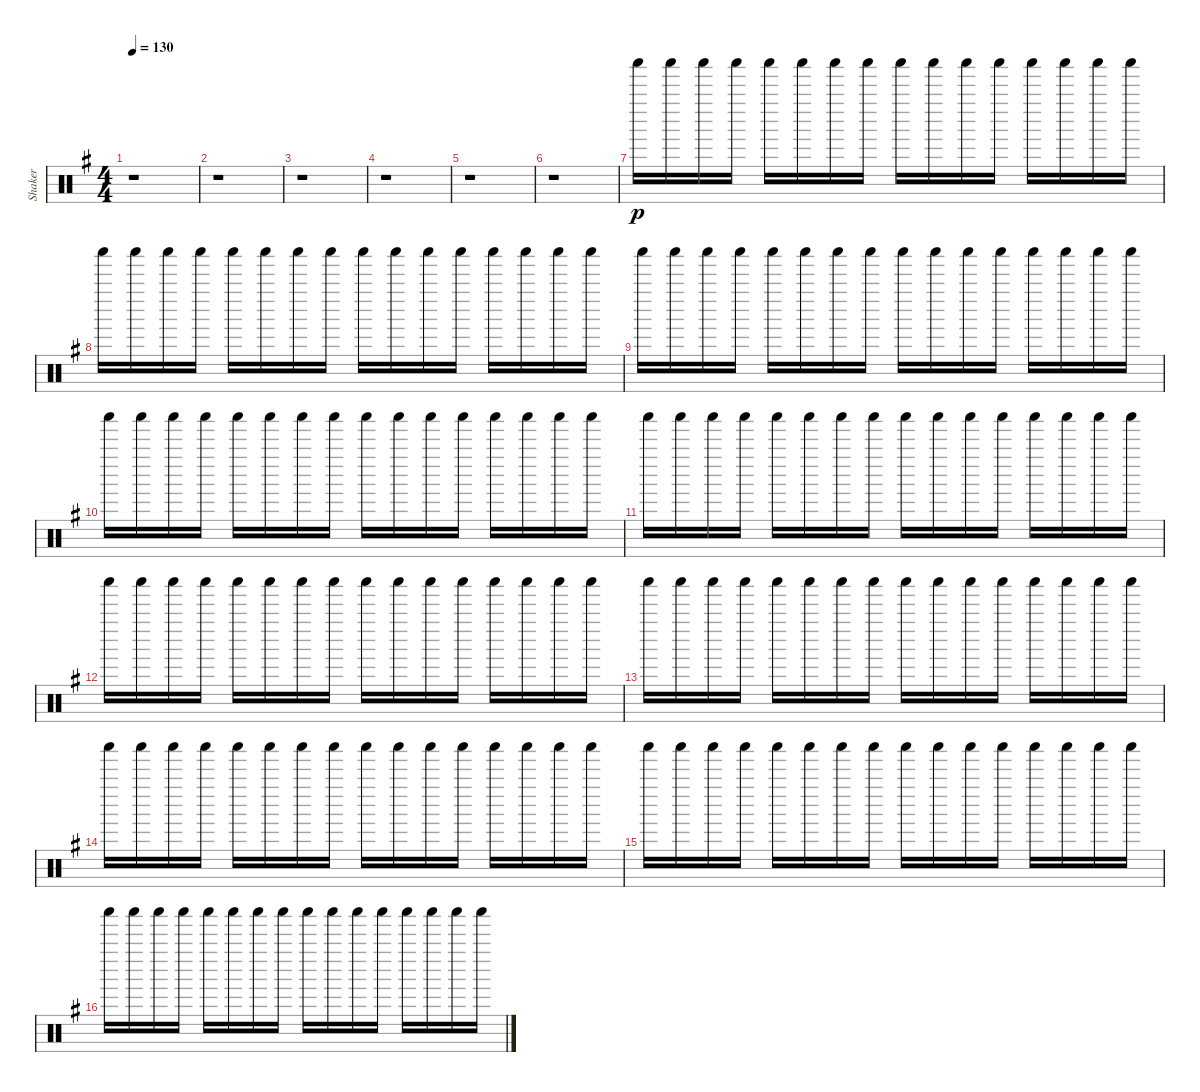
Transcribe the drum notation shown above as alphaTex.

\track ("Shaker" "Shaker") {instrument percussion}
\staff {score}
\articulation defaults
\ts (4 4)
\tempo 130
\clef neutral
\ks g
r.1{dy p} |
r.1 |
r.1 |
r.1 |
r.1 |
r.1 |
"Shaker (hit)".16 "Shaker (hit)".16 "Shaker (hit)".16 "Shaker (hit)".16 "Shaker (hit)".16 "Shaker (hit)".16 "Shaker (hit)".16 "Shaker (hit)".16 "Shaker (hit)".16 "Shaker (hit)".16 "Shaker (hit)".16 "Shaker (hit)".16 "Shaker (hit)".16 "Shaker (hit)".16 "Shaker (hit)".16 "Shaker (hit)".16 |
"Shaker (hit)".16 "Shaker (hit)".16 "Shaker (hit)".16 "Shaker (hit)".16 "Shaker (hit)".16 "Shaker (hit)".16 "Shaker (hit)".16 "Shaker (hit)".16 "Shaker (hit)".16 "Shaker (hit)".16 "Shaker (hit)".16 "Shaker (hit)".16 "Shaker (hit)".16 "Shaker (hit)".16 "Shaker (hit)".16 "Shaker (hit)".16 |
"Shaker (hit)".16 "Shaker (hit)".16 "Shaker (hit)".16 "Shaker (hit)".16 "Shaker (hit)".16 "Shaker (hit)".16 "Shaker (hit)".16 "Shaker (hit)".16 "Shaker (hit)".16 "Shaker (hit)".16 "Shaker (hit)".16 "Shaker (hit)".16 "Shaker (hit)".16 "Shaker (hit)".16 "Shaker (hit)".16 "Shaker (hit)".16 |
"Shaker (hit)".16 "Shaker (hit)".16 "Shaker (hit)".16 "Shaker (hit)".16 "Shaker (hit)".16 "Shaker (hit)".16 "Shaker (hit)".16 "Shaker (hit)".16 "Shaker (hit)".16 "Shaker (hit)".16 "Shaker (hit)".16 "Shaker (hit)".16 "Shaker (hit)".16 "Shaker (hit)".16 "Shaker (hit)".16 "Shaker (hit)".16 |
"Shaker (hit)".16 "Shaker (hit)".16 "Shaker (hit)".16 "Shaker (hit)".16 "Shaker (hit)".16 "Shaker (hit)".16 "Shaker (hit)".16 "Shaker (hit)".16 "Shaker (hit)".16 "Shaker (hit)".16 "Shaker (hit)".16 "Shaker (hit)".16 "Shaker (hit)".16 "Shaker (hit)".16 "Shaker (hit)".16 "Shaker (hit)".16 |
"Shaker (hit)".16 "Shaker (hit)".16 "Shaker (hit)".16 "Shaker (hit)".16 "Shaker (hit)".16 "Shaker (hit)".16 "Shaker (hit)".16 "Shaker (hit)".16 "Shaker (hit)".16 "Shaker (hit)".16 "Shaker (hit)".16 "Shaker (hit)".16 "Shaker (hit)".16 "Shaker (hit)".16 "Shaker (hit)".16 "Shaker (hit)".16 |
"Shaker (hit)".16 "Shaker (hit)".16 "Shaker (hit)".16 "Shaker (hit)".16 "Shaker (hit)".16 "Shaker (hit)".16 "Shaker (hit)".16 "Shaker (hit)".16 "Shaker (hit)".16 "Shaker (hit)".16 "Shaker (hit)".16 "Shaker (hit)".16 "Shaker (hit)".16 "Shaker (hit)".16 "Shaker (hit)".16 "Shaker (hit)".16 |
"Shaker (hit)".16 "Shaker (hit)".16 "Shaker (hit)".16 "Shaker (hit)".16 "Shaker (hit)".16 "Shaker (hit)".16 "Shaker (hit)".16 "Shaker (hit)".16 "Shaker (hit)".16 "Shaker (hit)".16 "Shaker (hit)".16 "Shaker (hit)".16 "Shaker (hit)".16 "Shaker (hit)".16 "Shaker (hit)".16 "Shaker (hit)".16 |
"Shaker (hit)".16 "Shaker (hit)".16 "Shaker (hit)".16 "Shaker (hit)".16 "Shaker (hit)".16 "Shaker (hit)".16 "Shaker (hit)".16 "Shaker (hit)".16 "Shaker (hit)".16 "Shaker (hit)".16 "Shaker (hit)".16 "Shaker (hit)".16 "Shaker (hit)".16 "Shaker (hit)".16 "Shaker (hit)".16 "Shaker (hit)".16 |
"Shaker (hit)".16 "Shaker (hit)".16 "Shaker (hit)".16 "Shaker (hit)".16 "Shaker (hit)".16 "Shaker (hit)".16 "Shaker (hit)".16 "Shaker (hit)".16 "Shaker (hit)".16 "Shaker (hit)".16 "Shaker (hit)".16 "Shaker (hit)".16 "Shaker (hit)".16 "Shaker (hit)".16 "Shaker (hit)".16 "Shaker (hit)".16
